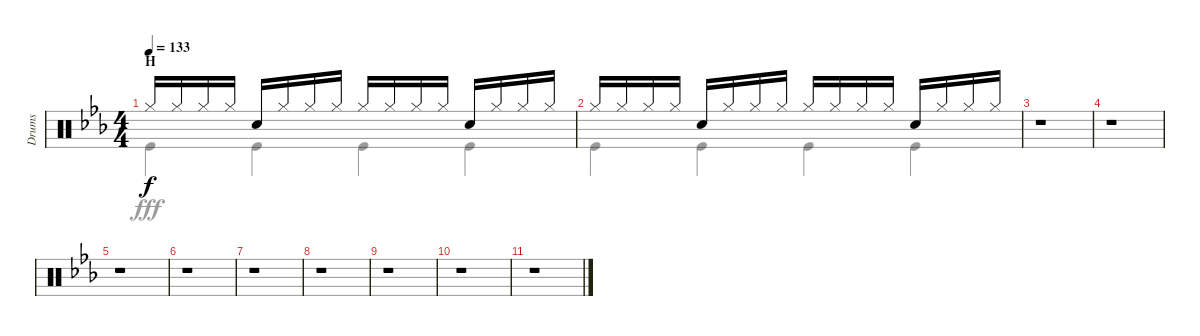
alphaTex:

\track ("Drums" "Drums") {instrument percussion}
\staff {score}
\articulation defaults
\voice
\ts (4 4)
\section ("" "H")
\tempo 133
\clef neutral
\ks eb "Hi-Hat (closed)".16{dy f} "Hi-Hat (closed)".16 "Hi-Hat (closed)".16 "Hi-Hat (closed)".16 "Snare (hit) 2".16 "Hi-Hat (closed)".16 "Hi-Hat (closed)".16 "Hi-Hat (closed)".16 "Hi-Hat (closed)".16 "Hi-Hat (closed)".16 "Hi-Hat (closed)".16 "Hi-Hat (closed)".16 "Snare (hit) 2".16 "Hi-Hat (closed)".16 "Hi-Hat (closed)".16 "Hi-Hat (closed)".16
|
"Hi-Hat (closed)".16 "Hi-Hat (closed)".16 "Hi-Hat (closed)".16 "Hi-Hat (closed)".16 "Snare (hit) 2".16 "Hi-Hat (closed)".16 "Hi-Hat (closed)".16 "Hi-Hat (closed)".16 "Hi-Hat (closed)".16 "Hi-Hat (closed)".16 "Hi-Hat (closed)".16 "Hi-Hat (closed)".16 "Snare (hit) 2".16 "Hi-Hat (closed)".16 "Hi-Hat (closed)".16 "Hi-Hat (closed)".16 |
r.1 |
r.1 |
r.1 |
r.1 |
r.1 |
r.1 |
r.1 |
r.1 |
r.1
\voice
\clef neutral
\ottava regular
\simile none
\ks eb "Kick (hit)".4{dy fff} "Kick (hit)".4 "Kick (hit)".4 "Kick (hit)".4
|
"Kick (hit)".4 "Kick (hit)".4 "Kick (hit)".4 "Kick (hit)".4 |
r.1 |
r.1 |
r.1 |
r.1 |
r.1 |
r.1 |
r.1 |
r.1 |
r.1
